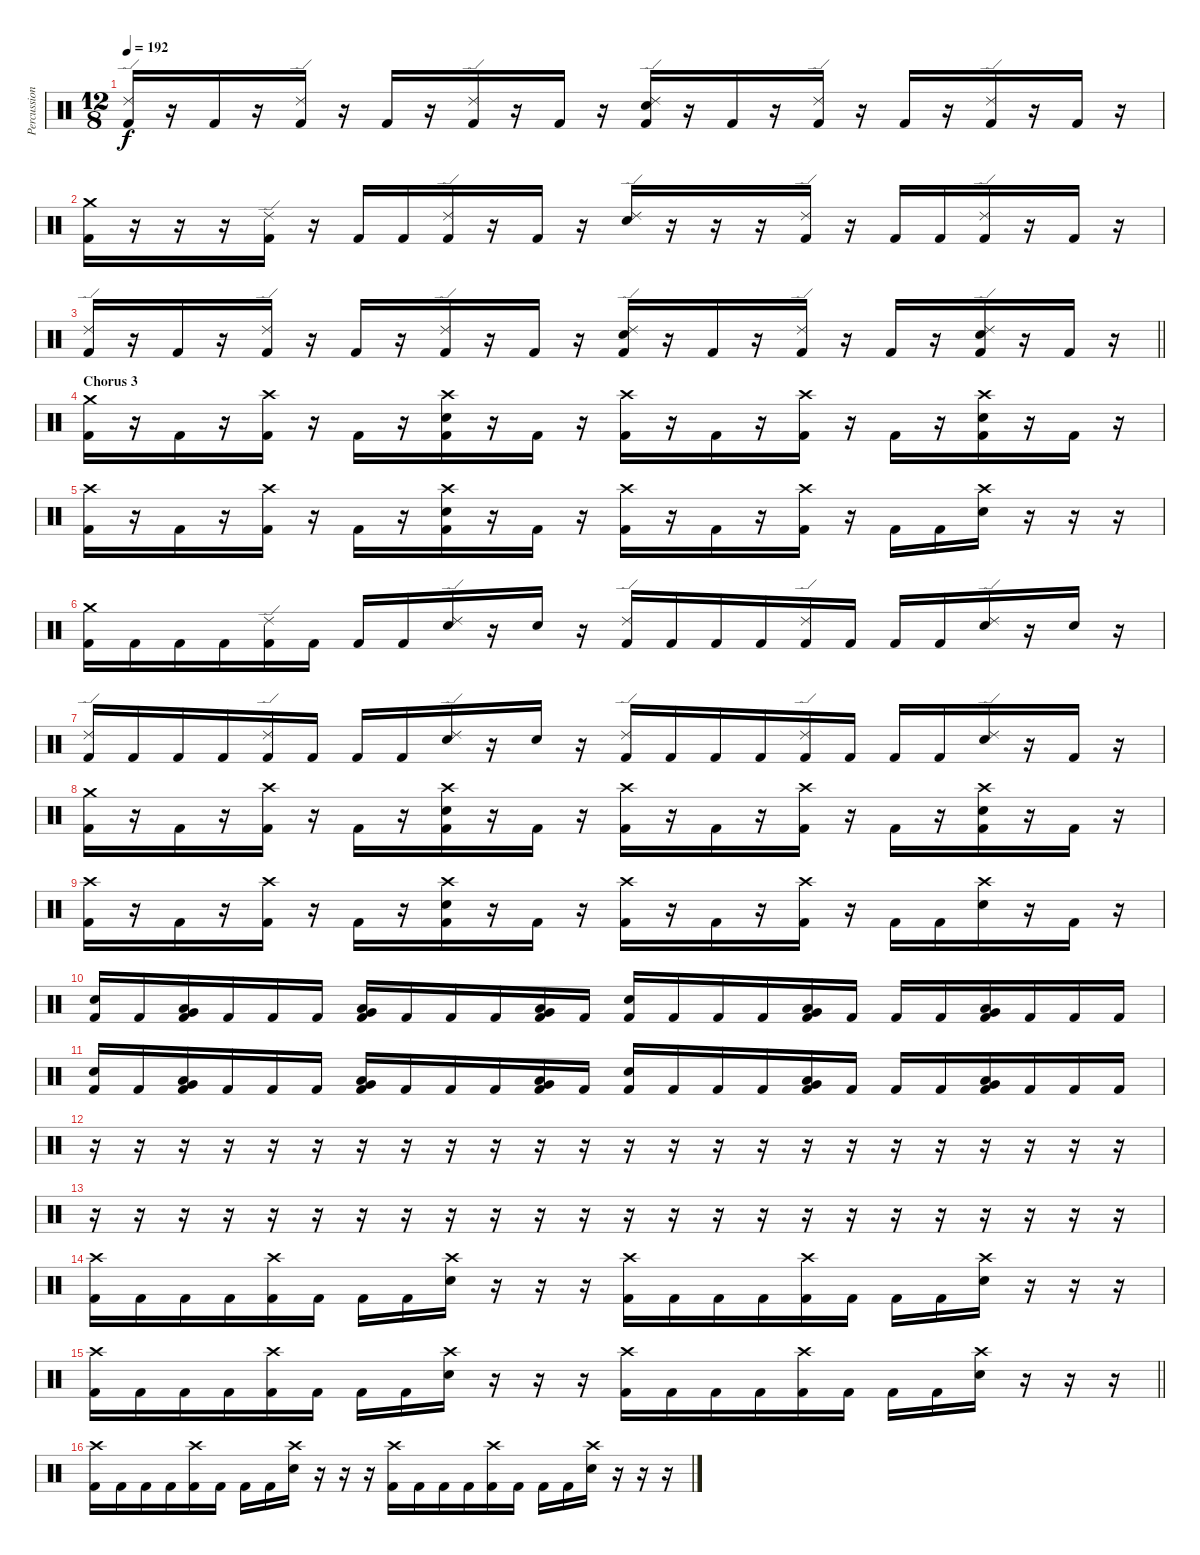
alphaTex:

\track ("Percussion" "Percussion") {instrument percussion}
\staff {score}
\articulation defaults
\ts (12 8)
\tempo 192
\clef neutral
\ks c
("Ride (edge) 2" "Kick (hit) 2").16{dy f} r.16 "Kick (hit) 2".16 r.16 ("Ride (edge) 2" "Kick (hit) 2").16 r.16 "Kick (hit) 2".16 r.16 ("Ride (edge) 2" "Kick (hit) 2").16 r.16 "Kick (hit) 2".16 r.16 ("Ride (edge) 2" "Electric Snare (hit)" "Kick (hit) 2").16 r.16 "Kick (hit) 2".16 r.16 ("Ride (edge) 2" "Kick (hit) 2").16 r.16 "Kick (hit) 2".16 r.16 ("Ride (edge) 2" "Kick (hit) 2").16 r.16 "Kick (hit) 2".16 r.16 |
("Crash medium (hit)" "Kick (hit) 2").16 r.16 r.16 r.16 ("Ride (edge) 2" "Kick (hit) 2").16 r.16 "Kick (hit) 2".16 "Kick (hit) 2".16 ("Ride (edge) 2" "Kick (hit) 2").16 r.16 "Kick (hit) 2".16 r.16 ("Ride (edge) 2" "Electric Snare (hit)").16 r.16 r.16 r.16 ("Ride (edge) 2" "Kick (hit) 2").16 r.16 "Kick (hit) 2".16 "Kick (hit) 2".16 ("Ride (edge) 2" "Kick (hit) 2").16 r.16 "Kick (hit) 2".16 r.16 |
\barLineRight lightlight
("Ride (edge) 2" "Kick (hit) 2").16 r.16 "Kick (hit) 2".16 r.16 ("Ride (edge) 2" "Kick (hit) 2").16 r.16 "Kick (hit) 2".16 r.16 ("Ride (edge) 2" "Kick (hit) 2").16 r.16 "Kick (hit) 2".16 r.16 ("Ride (edge) 2" "Electric Snare (hit)" "Kick (hit) 2").16 r.16 "Kick (hit) 2".16 r.16 ("Ride (edge) 2" "Kick (hit) 2").16 r.16 "Kick (hit) 2".16 r.16 ("Ride (edge) 2" "Electric Snare (hit)" "Kick (hit) 2").16 r.16 "Kick (hit) 2".16 r.16 |
\section ("" "Chorus 3")
("Crash medium (hit)" "Kick (hit) 2").16 r.16 "Kick (hit) 2".16 r.16 ("Crash high (hit)" "Kick (hit) 2").16 r.16 "Kick (hit) 2".16 r.16 ("Crash high (hit)" "Electric Snare (hit)" "Kick (hit) 2").16 r.16 "Kick (hit) 2".16 r.16 ("Crash high (hit)" "Kick (hit) 2").16 r.16 "Kick (hit) 2".16 r.16 ("Crash high (hit)" "Kick (hit) 2").16 r.16 "Kick (hit) 2".16 r.16 ("Crash high (hit)" "Electric Snare (hit)" "Kick (hit) 2").16 r.16 "Kick (hit) 2".16 r.16 |
("Crash high (hit)" "Kick (hit) 2").16 r.16 "Kick (hit) 2".16 r.16 ("Crash high (hit)" "Kick (hit) 2").16 r.16 "Kick (hit) 2".16 r.16 ("Crash high (hit)" "Electric Snare (hit)" "Kick (hit) 2").16 r.16 "Kick (hit) 2".16 r.16 ("Crash high (hit)" "Kick (hit) 2").16 r.16 "Kick (hit) 2".16 r.16 ("Crash high (hit)" "Kick (hit) 2").16 r.16 "Kick (hit) 2".16 "Kick (hit) 2".16 ("Crash high (hit)" "Electric Snare (hit)").16 r.16 r.16 r.16 |
("Crash medium (hit)" "Kick (hit) 2").16 "Kick (hit) 2".16 "Kick (hit) 2".16 "Kick (hit) 2".16 ("Ride (edge) 2" "Kick (hit) 2").16 "Kick (hit) 2".16 "Kick (hit) 2".16 "Kick (hit) 2".16 ("Ride (edge) 2" "Electric Snare (hit)").16 r.16 "Electric Snare (hit)".16 r.16 ("Ride (edge) 2" "Kick (hit) 2").16 "Kick (hit) 2".16 "Kick (hit) 2".16 "Kick (hit) 2".16 ("Ride (edge) 2" "Kick (hit) 2").16 "Kick (hit) 2".16 "Kick (hit) 2".16 "Kick (hit) 2".16 ("Ride (edge) 2" "Electric Snare (hit)").16 r.16 "Electric Snare (hit)".16 r.16 |
("Ride (edge) 2" "Kick (hit) 2").16 "Kick (hit) 2".16 "Kick (hit) 2".16 "Kick (hit) 2".16 ("Ride (edge) 2" "Kick (hit) 2").16 "Kick (hit) 2".16 "Kick (hit) 2".16 "Kick (hit) 2".16 ("Ride (edge) 2" "Electric Snare (hit)").16 r.16 "Electric Snare (hit)".16 r.16 ("Ride (edge) 2" "Kick (hit) 2").16 "Kick (hit) 2".16 "Kick (hit) 2".16 "Kick (hit) 2".16 ("Ride (edge) 2" "Kick (hit) 2").16 "Kick (hit) 2".16 "Kick (hit) 2".16 "Kick (hit) 2".16 ("Ride (edge) 2" "Electric Snare (hit)").16 r.16 "Kick (hit) 2".16 r.16 |
("Crash medium (hit)" "Kick (hit) 2").16 r.16 "Kick (hit) 2".16 r.16 ("Crash high (hit)" "Kick (hit) 2").16 r.16 "Kick (hit) 2".16 r.16 ("Crash high (hit)" "Electric Snare (hit)" "Kick (hit) 2").16 r.16 "Kick (hit) 2".16 r.16 ("Crash high (hit)" "Kick (hit) 2").16 r.16 "Kick (hit) 2".16 r.16 ("Crash high (hit)" "Kick (hit) 2").16 r.16 "Kick (hit) 2".16 r.16 ("Crash high (hit)" "Electric Snare (hit)" "Kick (hit) 2").16 r.16 "Kick (hit) 2".16 r.16 |
("Crash high (hit)" "Kick (hit) 2").16 r.16 "Kick (hit) 2".16 r.16 ("Crash high (hit)" "Kick (hit) 2").16 r.16 "Kick (hit) 2".16 r.16 ("Crash high (hit)" "Electric Snare (hit)" "Kick (hit) 2").16 r.16 "Kick (hit) 2".16 r.16 ("Crash high (hit)" "Kick (hit) 2").16 r.16 "Kick (hit) 2".16 r.16 ("Crash high (hit)" "Kick (hit) 2").16 r.16 "Kick (hit) 2".16 "Kick (hit) 2".16 ("Crash high (hit)" "Electric Snare (hit)").16 r.16 "Kick (hit) 2".16 r.16 |
("Electric Snare (hit)" "Kick (hit) 2").16 "Kick (hit) 2".16 ("Very Low Tom (hit)" "Low Floor Tom (hit)" "Kick (hit) 2").16 "Kick (hit) 2".16 "Kick (hit) 2".16 "Kick (hit) 2".16 ("Very Low Tom (hit)" "Low Floor Tom (hit)" "Kick (hit) 2").16 "Kick (hit) 2".16 "Kick (hit) 2".16 "Kick (hit) 2".16 ("Very Low Tom (hit)" "Low Floor Tom (hit)" "Kick (hit) 2").16 "Kick (hit) 2".16 ("Electric Snare (hit)" "Kick (hit) 2").16 "Kick (hit) 2".16 "Kick (hit) 2".16 "Kick (hit) 2".16 ("Very Low Tom (hit)" "Low Floor Tom (hit)" "Kick (hit) 2").16 "Kick (hit) 2".16 "Kick (hit) 2".16 "Kick (hit) 2".16 ("Very Low Tom (hit)" "Low Floor Tom (hit)" "Kick (hit) 2").16 "Kick (hit) 2".16 "Kick (hit) 2".16 "Kick (hit) 2".16 |
("Electric Snare (hit)" "Kick (hit) 2").16 "Kick (hit) 2".16 ("Very Low Tom (hit)" "Low Floor Tom (hit)" "Kick (hit) 2").16 "Kick (hit) 2".16 "Kick (hit) 2".16 "Kick (hit) 2".16 ("Very Low Tom (hit)" "Low Floor Tom (hit)" "Kick (hit) 2").16 "Kick (hit) 2".16 "Kick (hit) 2".16 "Kick (hit) 2".16 ("Very Low Tom (hit)" "Low Floor Tom (hit)" "Kick (hit) 2").16 "Kick (hit) 2".16 ("Electric Snare (hit)" "Kick (hit) 2").16 "Kick (hit) 2".16 "Kick (hit) 2".16 "Kick (hit) 2".16 ("Very Low Tom (hit)" "Low Floor Tom (hit)" "Kick (hit) 2").16 "Kick (hit) 2".16 "Kick (hit) 2".16 "Kick (hit) 2".16 ("Very Low Tom (hit)" "Low Floor Tom (hit)" "Kick (hit) 2").16 "Kick (hit) 2".16 "Kick (hit) 2".16 "Kick (hit) 2".16 |
r.16 r.16 r.16 r.16 r.16 r.16 r.16 r.16 r.16 r.16 r.16 r.16 r.16 r.16 r.16 r.16 r.16 r.16 r.16 r.16 r.16 r.16 r.16 r.16 |
r.16 r.16 r.16 r.16 r.16 r.16 r.16 r.16 r.16 r.16 r.16 r.16 r.16 r.16 r.16 r.16 r.16 r.16 r.16 r.16 r.16 r.16 r.16 r.16 |
("Crash high (hit)" "Kick (hit) 2").16 "Kick (hit) 2".16 "Kick (hit) 2".16 "Kick (hit) 2".16 ("Crash high (hit)" "Kick (hit) 2").16 "Kick (hit) 2".16 "Kick (hit) 2".16 "Kick (hit) 2".16 ("Crash high (hit)" "Electric Snare (hit)").16 r.16 r.16 r.16 ("Crash high (hit)" "Kick (hit) 2").16 "Kick (hit) 2".16 "Kick (hit) 2".16 "Kick (hit) 2".16 ("Crash high (hit)" "Kick (hit) 2").16 "Kick (hit) 2".16 "Kick (hit) 2".16 "Kick (hit) 2".16 ("Crash high (hit)" "Electric Snare (hit)").16 r.16 r.16 r.16 |
\barLineRight lightlight
("Crash high (hit)" "Kick (hit) 2").16 "Kick (hit) 2".16 "Kick (hit) 2".16 "Kick (hit) 2".16 ("Crash high (hit)" "Kick (hit) 2").16 "Kick (hit) 2".16 "Kick (hit) 2".16 "Kick (hit) 2".16 ("Crash high (hit)" "Electric Snare (hit)").16 r.16 r.16 r.16 ("Crash high (hit)" "Kick (hit) 2").16 "Kick (hit) 2".16 "Kick (hit) 2".16 "Kick (hit) 2".16 ("Crash high (hit)" "Kick (hit) 2").16 "Kick (hit) 2".16 "Kick (hit) 2".16 "Kick (hit) 2".16 ("Crash high (hit)" "Electric Snare (hit)").16 r.16 r.16 r.16 |
("Crash high (hit)" "Kick (hit) 2").16 "Kick (hit) 2".16 "Kick (hit) 2".16 "Kick (hit) 2".16 ("Crash high (hit)" "Kick (hit) 2").16 "Kick (hit) 2".16 "Kick (hit) 2".16 "Kick (hit) 2".16 ("Crash high (hit)" "Electric Snare (hit)").16 r.16 r.16 r.16 ("Crash high (hit)" "Kick (hit) 2").16 "Kick (hit) 2".16 "Kick (hit) 2".16 "Kick (hit) 2".16 ("Crash high (hit)" "Kick (hit) 2").16 "Kick (hit) 2".16 "Kick (hit) 2".16 "Kick (hit) 2".16 ("Crash high (hit)" "Electric Snare (hit)").16 r.16 r.16 r.16
